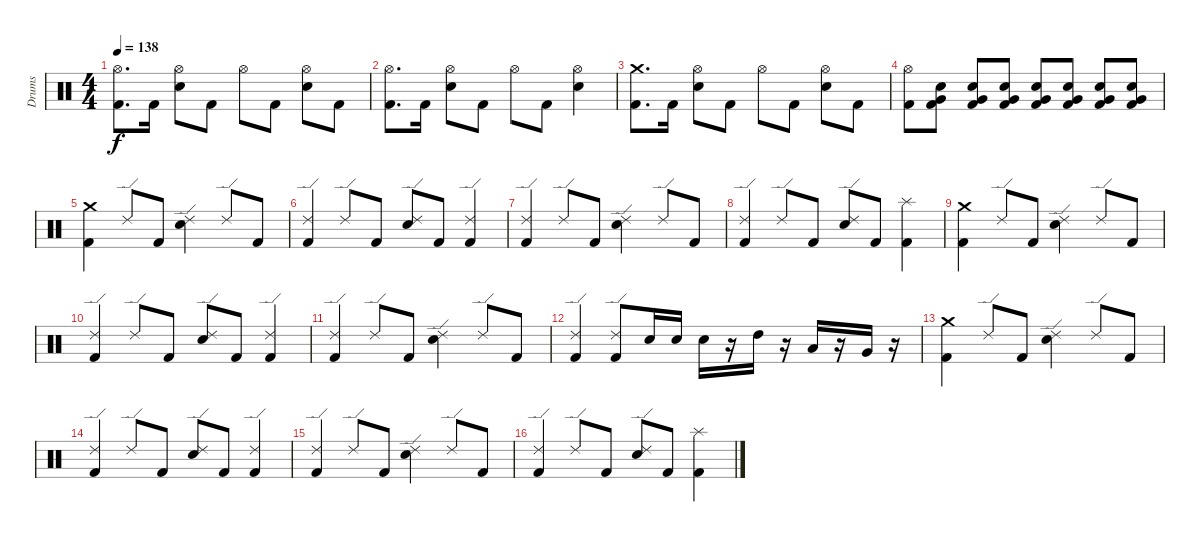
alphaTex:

\track ("Drums" "Drums") {instrument percussion}
\staff {score}
\articulation defaults
\ts (4 4)
\tempo 138
\clef neutral
\ks c
("Hi-Hat (open)" "Kick (hit) 2").8{d dy f} "Kick (hit) 2".16 ("Hi-Hat (open)" "Electric Snare (hit)").8 "Kick (hit) 2".8 "Hi-Hat (open)".8 "Kick (hit) 2".8 ("Hi-Hat (open)" "Electric Snare (hit)").8 "Kick (hit) 2".8 |
("Hi-Hat (open)" "Kick (hit) 2").8{d} "Kick (hit) 2".16 ("Hi-Hat (open)" "Electric Snare (hit)").8 "Kick (hit) 2".8 "Hi-Hat (open)".8 "Kick (hit) 2".8 ("Hi-Hat (open)" "Electric Snare (hit)").4 |
("Crash medium (hit)" "Kick (hit) 2").8{d} "Kick (hit) 2".16 ("Hi-Hat (open)" "Electric Snare (hit)").8 "Kick (hit) 2".8 "Hi-Hat (open)".8 "Kick (hit) 2".8 ("Hi-Hat (open)" "Electric Snare (hit)").8 "Kick (hit) 2".8 |
("Hi-Hat (open)" "Kick (hit) 2").8 ("Very Low Tom (hit)" "Electric Snare (hit)" "Kick (hit) 2").8 ("Very Low Tom (hit)" "Electric Snare (hit)" "Kick (hit) 2").8 ("Very Low Tom (hit)" "Electric Snare (hit)" "Kick (hit) 2").8 ("Very Low Tom (hit)" "Electric Snare (hit)" "Kick (hit) 2").8 ("Very Low Tom (hit)" "Electric Snare (hit)" "Kick (hit) 2").8 ("Very Low Tom (hit)" "Electric Snare (hit)" "Kick (hit) 2").8 ("Very Low Tom (hit)" "Electric Snare (hit)" "Kick (hit) 2").8 |
("Kick (hit) 2" "Crash medium (hit)").4 "Ride (edge) 2".8 "Kick (hit) 2".8 ("Ride (edge) 2" "Electric Snare (hit)").4 "Ride (edge) 2".8 "Kick (hit) 2".8 |
("Ride (edge) 2" "Kick (hit) 2").4 "Ride (edge) 2".8 "Kick (hit) 2".8 ("Ride (edge) 2" "Electric Snare (hit)").8 "Kick (hit) 2".8 ("Ride (edge) 2" "Kick (hit) 2").4 |
("Ride (edge) 2" "Kick (hit) 2").4 "Ride (edge) 2".8 "Kick (hit) 2".8 ("Ride (edge) 2" "Electric Snare (hit)").4 "Ride (edge) 2".8 "Kick (hit) 2".8 |
("Ride (edge) 2" "Kick (hit) 2").4 "Ride (edge) 2".8 "Kick (hit) 2".8 ("Ride (edge) 2" "Electric Snare (hit)").8 "Kick (hit) 2".8 ("Splash (hit)" "Kick (hit) 2").4 |
("Kick (hit) 2" "Crash medium (hit)").4 "Ride (edge) 2".8 "Kick (hit) 2".8 ("Ride (edge) 2" "Electric Snare (hit)").4 "Ride (edge) 2".8 "Kick (hit) 2".8 |
("Ride (edge) 2" "Kick (hit) 2").4 "Ride (edge) 2".8 "Kick (hit) 2".8 ("Ride (edge) 2" "Electric Snare (hit)").8 "Kick (hit) 2".8 ("Ride (edge) 2" "Kick (hit) 2").4 |
("Ride (edge) 2" "Kick (hit) 2").4 "Ride (edge) 2".8 "Kick (hit) 2".8 ("Ride (edge) 2" "Electric Snare (hit)").4 "Ride (edge) 2".8 "Kick (hit) 2".8 |
("Ride (edge) 2" "Kick (hit) 2").4 ("Ride (edge) 2" "Kick (hit) 2").8 "Electric Snare (hit)".16 "Electric Snare (hit)".16 "Electric Snare (hit)".16 r.16 "High Tom (hit)".16 r.16 "Low Tom (hit)".16 r.16 "Very Low Tom (hit)".16 r.16 |
("Kick (hit) 2" "Crash medium (hit)").4 "Ride (edge) 2".8 "Kick (hit) 2".8 ("Ride (edge) 2" "Electric Snare (hit)").4 "Ride (edge) 2".8 "Kick (hit) 2".8 |
("Ride (edge) 2" "Kick (hit) 2").4 "Ride (edge) 2".8 "Kick (hit) 2".8 ("Ride (edge) 2" "Electric Snare (hit)").8 "Kick (hit) 2".8 ("Ride (edge) 2" "Kick (hit) 2").4 |
("Ride (edge) 2" "Kick (hit) 2").4 "Ride (edge) 2".8 "Kick (hit) 2".8 ("Ride (edge) 2" "Electric Snare (hit)").4 "Ride (edge) 2".8 "Kick (hit) 2".8 |
("Ride (edge) 2" "Kick (hit) 2").4 "Ride (edge) 2".8 "Kick (hit) 2".8 ("Ride (edge) 2" "Electric Snare (hit)").8 "Kick (hit) 2".8 ("Splash (hit)" "Kick (hit) 2").4
